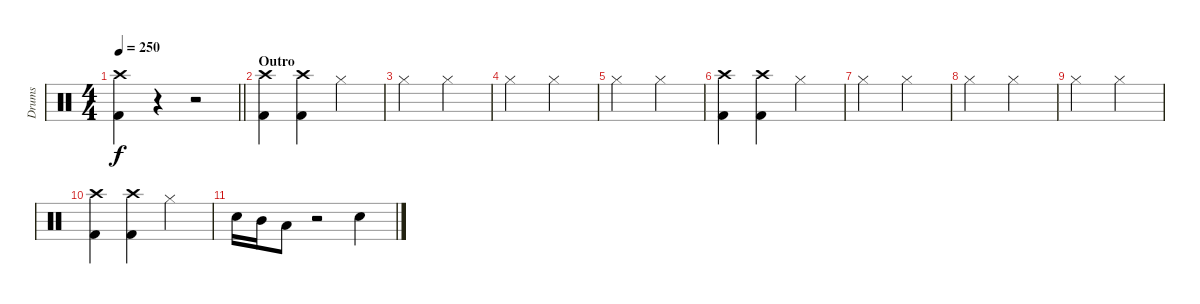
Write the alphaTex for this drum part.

\track ("Drums" "Drums") {instrument percussion}
\staff {score}
\articulation defaults
\ts (4 4)
\tempo 250
\clef neutral
\barLineRight lightlight
\ks c
("Crash high (hit)" "Kick (hit) 2").4{dy f} r.4 r.2 |
\section ("" "Outro")
("Crash high (hit)" "Kick (hit) 2").4 ("Crash high (hit)" "Kick (hit) 2").4 "Hi-Hat (closed)".2 |
"Hi-Hat (closed)".2 "Hi-Hat (closed)".2 |
"Hi-Hat (closed)".2 "Hi-Hat (closed)".2 |
"Hi-Hat (closed)".2 "Hi-Hat (closed)".2 |
("Crash high (hit)" "Kick (hit) 2").4 ("Crash high (hit)" "Kick (hit) 2").4 "Hi-Hat (closed)".2 |
"Hi-Hat (closed)".2 "Hi-Hat (closed)".2 |
"Hi-Hat (closed)".2 "Hi-Hat (closed)".2 |
"Hi-Hat (closed)".2 "Hi-Hat (closed)".2 |
("Crash high (hit)" "Kick (hit) 2").4 ("Crash high (hit)" "Kick (hit) 2").4 "Hi-Hat (closed)".2 |
"Snare (hit) 2".16 "Mid Tom (hit)".16 "Low Tom (hit)".8 r.2 "Snare (hit) 2".4
